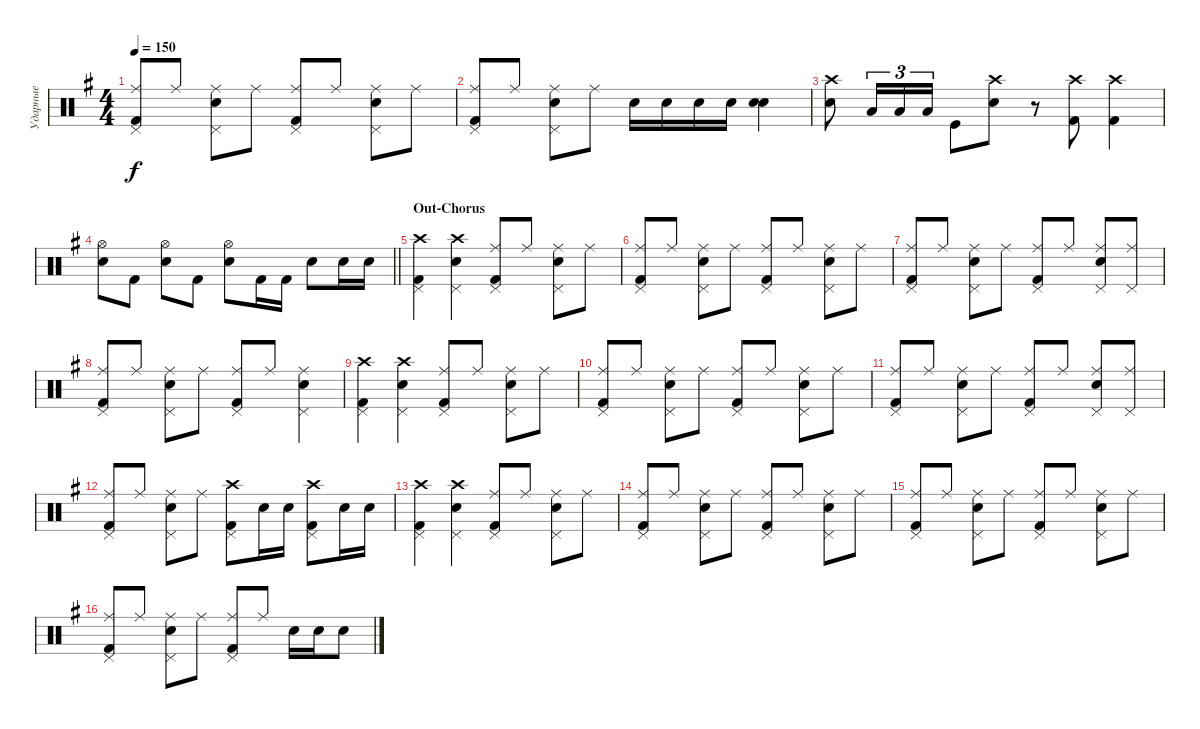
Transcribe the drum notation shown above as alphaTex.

\track ("Ударные" "Ударные") {instrument percussion}
\staff {score}
\articulation defaults
\ts (4 4)
\tempo 150
\clef neutral
\ks eminor
("Ride (middle)" "Kick (hit) 2" "Pedal Hi-Hat (hit)").8{dy f} "Ride (middle)".8 ("Ride (middle)" "Snare (hit) 2" "Pedal Hi-Hat (hit)").8 "Ride (middle)".8 ("Ride (middle)" "Kick (hit) 2" "Pedal Hi-Hat (hit)").8 "Ride (middle)".8 ("Ride (middle)" "Snare (hit) 2" "Pedal Hi-Hat (hit)").8 "Ride (middle)".8 |
("Ride (middle)" "Kick (hit) 2" "Pedal Hi-Hat (hit)").8 "Ride (middle)".8 ("Ride (middle)" "Snare (hit) 2" "Pedal Hi-Hat (hit)").8 "Ride (middle)".8 "Snare (hit) 2".16 "Snare (hit) 2".16 "Snare (hit) 2".16 "Snare (hit) 2".16 ("Snare (hit) 2" "Snare (hit) 2").4{bd 240} |
("Snare (hit) 2" "Crash high (hit)").8 "Low Tom (hit)".16{tu (3 2)} "Low Tom (hit)".16{tu (3 2)} "Low Tom (hit)".16{tu (3 2)} "Kick (hit)".8 ("Snare (hit) 2" "Crash high (hit)").8 r.8 ("Kick (hit) 2" "Crash high (hit)").8 ("Kick (hit) 2" "Crash high (hit)").4 |
\barLineRight lightlight
("Snare (hit) 2" "Hi-Hat (open)").8 "Kick (hit) 2".8 ("Snare (hit) 2" "Hi-Hat (open)").8 "Kick (hit) 2".8 ("Snare (hit) 2" "Hi-Hat (open)").8 "Kick (hit) 2".16 "Kick (hit) 2".16 "Snare (hit) 2".8 "Snare (hit) 2".16 "Snare (hit) 2".16 |
\section ("" "Out-Chorus")
("Kick (hit) 2" "Crash high (hit)" "Pedal Hi-Hat (hit)").4 ("Snare (hit) 2" "Crash high (hit)" "Pedal Hi-Hat (hit)").4 ("Kick (hit) 2" "Ride (middle)" "Pedal Hi-Hat (hit)").8 "Ride (middle)".8 ("Snare (hit) 2" "Ride (middle)" "Pedal Hi-Hat (hit)").8 "Ride (middle)".8 |
("Ride (middle)" "Kick (hit) 2" "Pedal Hi-Hat (hit)").8 "Ride (middle)".8 ("Ride (middle)" "Snare (hit) 2" "Pedal Hi-Hat (hit)").8 "Ride (middle)".8 ("Ride (middle)" "Kick (hit) 2" "Pedal Hi-Hat (hit)").8 "Ride (middle)".8 ("Ride (middle)" "Snare (hit) 2" "Pedal Hi-Hat (hit)").8 "Ride (middle)".8 |
("Ride (middle)" "Kick (hit) 2" "Pedal Hi-Hat (hit)").8 "Ride (middle)".8 ("Ride (middle)" "Snare (hit) 2" "Pedal Hi-Hat (hit)").8 "Ride (middle)".8 ("Ride (middle)" "Kick (hit) 2" "Pedal Hi-Hat (hit)").8 "Ride (middle)".8 ("Ride (middle)" "Snare (hit) 2" "Pedal Hi-Hat (hit)").8 ("Ride (middle)" "Pedal Hi-Hat (hit)").8 |
("Ride (middle)" "Kick (hit) 2" "Pedal Hi-Hat (hit)").8 "Ride (middle)".8 ("Ride (middle)" "Snare (hit) 2" "Pedal Hi-Hat (hit)").8 "Ride (middle)".8 ("Ride (middle)" "Kick (hit) 2" "Pedal Hi-Hat (hit)").8 "Ride (middle)".8 ("Ride (middle)" "Snare (hit) 2" "Pedal Hi-Hat (hit)").4 |
("Kick (hit) 2" "Crash high (hit)" "Pedal Hi-Hat (hit)").4 ("Snare (hit) 2" "Crash high (hit)" "Pedal Hi-Hat (hit)").4 ("Kick (hit) 2" "Ride (middle)" "Pedal Hi-Hat (hit)").8 "Ride (middle)".8 ("Snare (hit) 2" "Ride (middle)" "Pedal Hi-Hat (hit)").8 "Ride (middle)".8 |
("Ride (middle)" "Kick (hit) 2" "Pedal Hi-Hat (hit)").8 "Ride (middle)".8 ("Ride (middle)" "Snare (hit) 2" "Pedal Hi-Hat (hit)").8 "Ride (middle)".8 ("Ride (middle)" "Kick (hit) 2" "Pedal Hi-Hat (hit)").8 "Ride (middle)".8 ("Ride (middle)" "Snare (hit) 2" "Pedal Hi-Hat (hit)").8 "Ride (middle)".8 |
("Ride (middle)" "Kick (hit) 2" "Pedal Hi-Hat (hit)").8 "Ride (middle)".8 ("Ride (middle)" "Snare (hit) 2" "Pedal Hi-Hat (hit)").8 "Ride (middle)".8 ("Ride (middle)" "Kick (hit) 2" "Pedal Hi-Hat (hit)").8 "Ride (middle)".8 ("Ride (middle)" "Snare (hit) 2" "Pedal Hi-Hat (hit)").8 ("Ride (middle)" "Pedal Hi-Hat (hit)").8 |
("Ride (middle)" "Kick (hit) 2" "Pedal Hi-Hat (hit)").8 "Ride (middle)".8 ("Ride (middle)" "Snare (hit) 2" "Pedal Hi-Hat (hit)").8 "Ride (middle)".8 ("Crash high (hit)" "Kick (hit) 2" "Pedal Hi-Hat (hit)").8 "Snare (hit) 2".16 "Snare (hit) 2".16 ("Crash high (hit)" "Kick (hit) 2" "Pedal Hi-Hat (hit)").8 "Snare (hit) 2".16 "Snare (hit) 2".16 |
("Kick (hit) 2" "Crash high (hit)" "Pedal Hi-Hat (hit)").4 ("Snare (hit) 2" "Crash high (hit)" "Pedal Hi-Hat (hit)").4 ("Kick (hit) 2" "Ride (middle)" "Pedal Hi-Hat (hit)").8 "Ride (middle)".8 ("Snare (hit) 2" "Ride (middle)" "Pedal Hi-Hat (hit)").8 "Ride (middle)".8 |
("Ride (middle)" "Kick (hit) 2" "Pedal Hi-Hat (hit)").8 "Ride (middle)".8 ("Ride (middle)" "Snare (hit) 2" "Pedal Hi-Hat (hit)").8 "Ride (middle)".8 ("Ride (middle)" "Kick (hit) 2" "Pedal Hi-Hat (hit)").8 "Ride (middle)".8 ("Ride (middle)" "Snare (hit) 2" "Pedal Hi-Hat (hit)").8 "Ride (middle)".8 |
("Ride (middle)" "Kick (hit) 2" "Pedal Hi-Hat (hit)").8 "Ride (middle)".8 ("Ride (middle)" "Snare (hit) 2" "Pedal Hi-Hat (hit)").8 "Ride (middle)".8 ("Ride (middle)" "Kick (hit) 2" "Pedal Hi-Hat (hit)").8 "Ride (middle)".8 ("Ride (middle)" "Snare (hit) 2" "Pedal Hi-Hat (hit)").8 "Ride (middle)".8 |
("Ride (middle)" "Kick (hit) 2" "Pedal Hi-Hat (hit)").8 "Ride (middle)".8 ("Ride (middle)" "Snare (hit) 2" "Pedal Hi-Hat (hit)").8 "Ride (middle)".8 ("Ride (middle)" "Kick (hit) 2" "Pedal Hi-Hat (hit)").8 "Ride (middle)".8 "Snare (hit) 2".16 "Snare (hit) 2".16 "Snare (hit) 2".8
